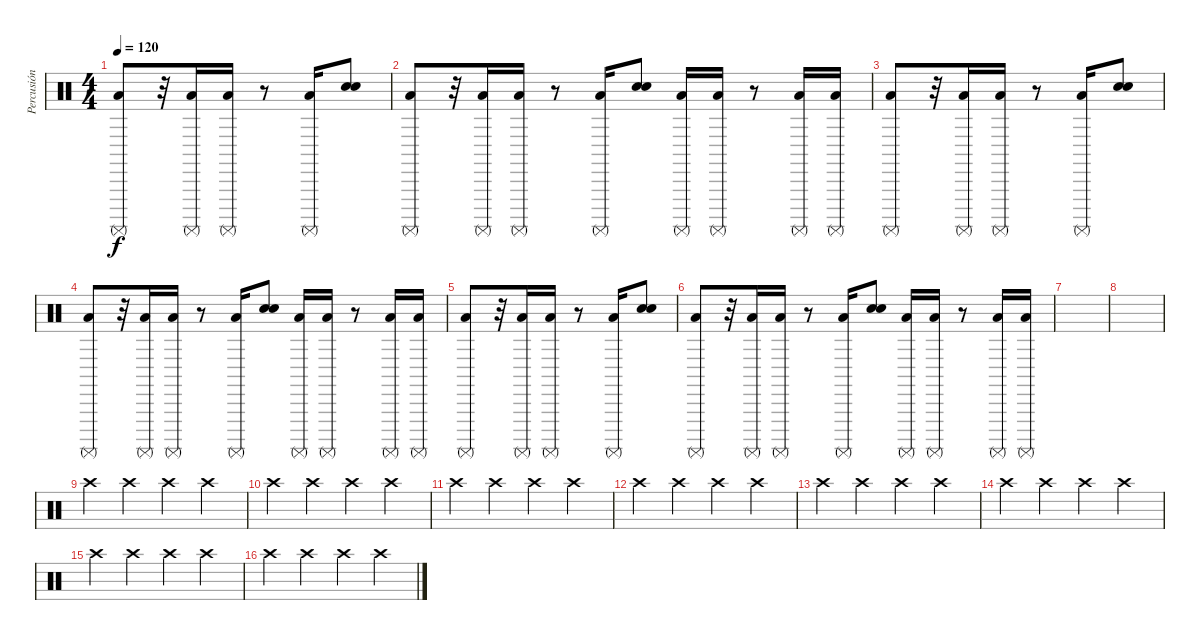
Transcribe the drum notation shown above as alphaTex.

\track ("Percusión" "Percusión") {instrument percussion}
\staff {score}
\articulation defaults
\ts (4 4)
\tempo 120
\clef neutral
\ks c
("Surdo (mute)" "Low Tom (hit)").8{dy f} r.32 ("Surdo (mute)" "Low Tom (hit)").16 ("Surdo (mute)" "Low Tom (hit)").16 r.8 ("Surdo (mute)" "Low Tom (hit)").16 ("Electric Snare (hit)" "Snare (hit) 2").8 |
("Surdo (mute)" "Low Tom (hit)").8 r.32 ("Surdo (mute)" "Low Tom (hit)").16 ("Surdo (mute)" "Low Tom (hit)").16 r.8 ("Surdo (mute)" "Low Tom (hit)").16 ("Electric Snare (hit)" "Snare (hit) 2").8 ("Surdo (mute)" "Low Tom (hit)").16 ("Surdo (mute)" "Low Tom (hit)").16 r.8 ("Surdo (mute)" "Low Tom (hit)").16 ("Surdo (mute)" "Low Tom (hit)").16 |
("Surdo (mute)" "Low Tom (hit)").8 r.32 ("Surdo (mute)" "Low Tom (hit)").16 ("Surdo (mute)" "Low Tom (hit)").16 r.8 ("Surdo (mute)" "Low Tom (hit)").16 ("Electric Snare (hit)" "Snare (hit) 2").8 |
("Surdo (mute)" "Low Tom (hit)").8 r.32 ("Surdo (mute)" "Low Tom (hit)").16 ("Surdo (mute)" "Low Tom (hit)").16 r.8 ("Surdo (mute)" "Low Tom (hit)").16 ("Electric Snare (hit)" "Snare (hit) 2").8 ("Surdo (mute)" "Low Tom (hit)").16 ("Surdo (mute)" "Low Tom (hit)").16 r.8 ("Surdo (mute)" "Low Tom (hit)").16 ("Surdo (mute)" "Low Tom (hit)").16 |
("Surdo (mute)" "Low Tom (hit)").8 r.32 ("Surdo (mute)" "Low Tom (hit)").16 ("Surdo (mute)" "Low Tom (hit)").16 r.8 ("Surdo (mute)" "Low Tom (hit)").16 ("Electric Snare (hit)" "Snare (hit) 2").8 |
("Surdo (mute)" "Low Tom (hit)").8 r.32 ("Surdo (mute)" "Low Tom (hit)").16 ("Surdo (mute)" "Low Tom (hit)").16 r.8 ("Surdo (mute)" "Low Tom (hit)").16 ("Electric Snare (hit)" "Snare (hit) 2").8 ("Surdo (mute)" "Low Tom (hit)").16 ("Surdo (mute)" "Low Tom (hit)").16 r.8 ("Surdo (mute)" "Low Tom (hit)").16 ("Surdo (mute)" "Low Tom (hit)").16 |
|
|
"Crash high (hit)".4 "Crash high (hit)".4 "Crash high (hit)".4 "Crash high (hit)".4 |
"Crash high (hit)".4 "Crash high (hit)".4 "Crash high (hit)".4 "Crash high (hit)".4 |
"Crash high (hit)".4 "Crash high (hit)".4 "Crash high (hit)".4 "Crash high (hit)".4 |
"Crash high (hit)".4 "Crash high (hit)".4 "Crash high (hit)".4 "Crash high (hit)".4 |
"Crash high (hit)".4 "Crash high (hit)".4 "Crash high (hit)".4 "Crash high (hit)".4 |
"Crash high (hit)".4 "Crash high (hit)".4 "Crash high (hit)".4 "Crash high (hit)".4 |
"Crash high (hit)".4 "Crash high (hit)".4 "Crash high (hit)".4 "Crash high (hit)".4 |
"Crash high (hit)".4 "Crash high (hit)".4 "Crash high (hit)".4 "Crash high (hit)".4
